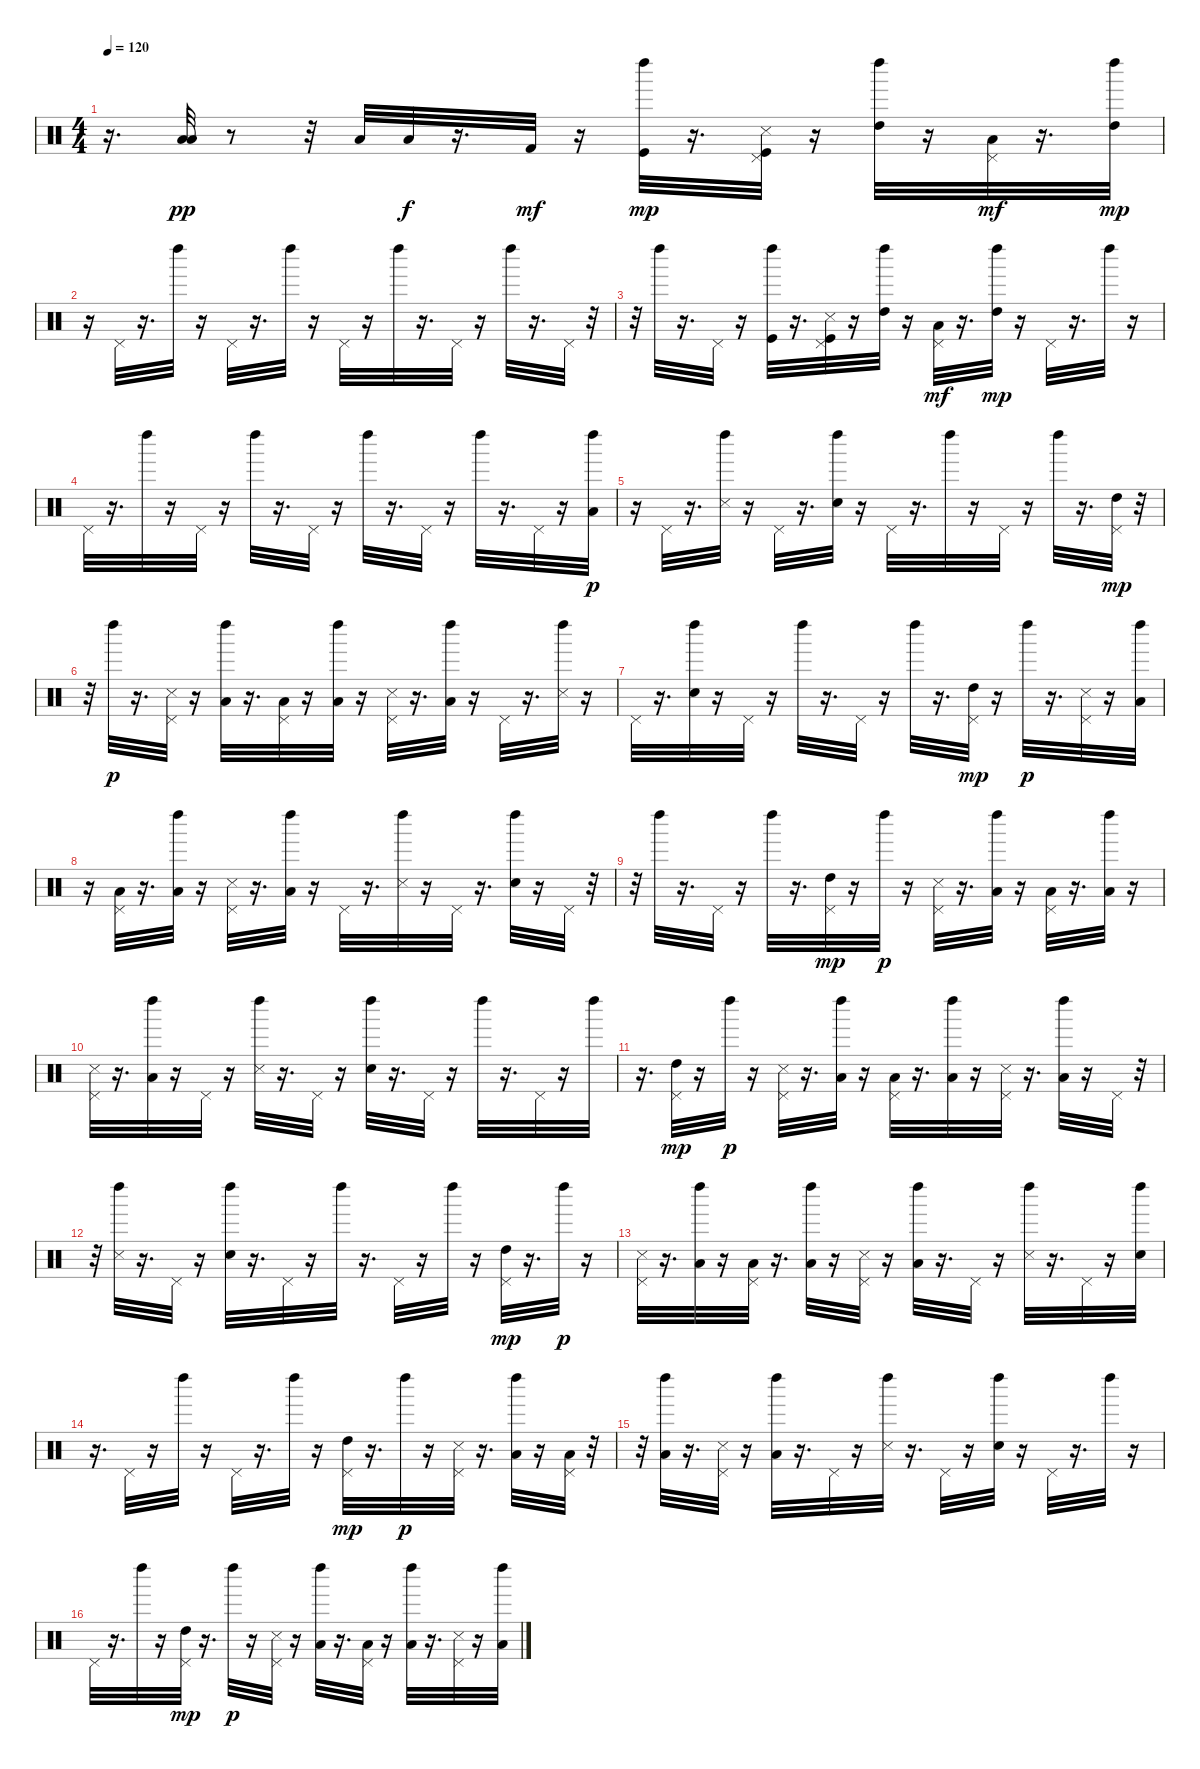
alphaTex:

\track "" {instrument percussion}
\staff {score}
\articulation defaults
\ts (4 4)
\tempo 120
\clef neutral
\ks c
r.16{d dy f} ("Low Tom (hit)" "Low Tom (hit)").32{dy pp} r.8 r.32 "Low Floor Tom (hit)".32 "Low Floor Tom (hit)".32{dy f} r.16{d} "Kick (hit) 2".32{dy mf} r.16 ("Kick (hit)" "Left Maraca (hit)").32{dy mp} r.16{d} ("Kick (hit)" "Pedal Hi-Hat (hit)" "Snare (side stick) 3").32 r.16 ("High Tom (hit)" "Left Maraca (hit)").32 r.16 ("Pedal Hi-Hat (hit)" "Low Floor Tom (hit)").32{dy mf} r.16{d} ("High Tom (hit)" "Left Maraca (hit)").32{dy mp} |
r.16 "Pedal Hi-Hat (hit)".32 r.16{d} "Left Maraca (hit)".32 r.16 "Pedal Hi-Hat (hit)".32 r.16{d} "Left Maraca (hit)".32 r.16 "Pedal Hi-Hat (hit)".32 r.16 "Left Maraca (hit)".32 r.16{d} "Pedal Hi-Hat (hit)".32 r.16 "Left Maraca (hit)".32 r.16{d} "Pedal Hi-Hat (hit)".32 r.32 |
r.32 "Left Maraca (hit)".32 r.16{d} "Pedal Hi-Hat (hit)".32 r.16 ("Kick (hit)" "Left Maraca (hit)").32 r.16{d} ("Kick (hit)" "Pedal Hi-Hat (hit)" "Snare (side stick) 3").32 r.16 ("High Tom (hit)" "Left Maraca (hit)").32 r.16 ("Pedal Hi-Hat (hit)" "Low Floor Tom (hit)").32{dy mf} r.16{d} ("High Tom (hit)" "Left Maraca (hit)").32{dy mp} r.16 "Pedal Hi-Hat (hit)".32 r.16{d} "Left Maraca (hit)".32 r.16 |
"Pedal Hi-Hat (hit)".32 r.16{d} "Left Maraca (hit)".32 r.16 "Pedal Hi-Hat (hit)".32 r.16 "Left Maraca (hit)".32 r.16{d} "Pedal Hi-Hat (hit)".32 r.16 "Left Maraca (hit)".32 r.16{d} "Pedal Hi-Hat (hit)".32 r.16 "Left Maraca (hit)".32 r.16{d} "Pedal Hi-Hat (hit)".32 r.16 ("Low Floor Tom (hit)" "Left Maraca (hit)").32{dy p} |
r.16 "Pedal Hi-Hat (hit)".32 r.16{d} ("Snare (side stick) 3" "Left Maraca (hit)").32 r.16 "Pedal Hi-Hat (hit)".32 r.16{d} ("Snare (hit) 2" "Left Maraca (hit)").32 r.16 "Pedal Hi-Hat (hit)".32 r.16{d} "Left Maraca (hit)".32 r.16 "Pedal Hi-Hat (hit)".32 r.16 "Left Maraca (hit)".32 r.16{d} ("Pedal Hi-Hat (hit)" "High Tom (hit)").32{dy mp} r.32 |
r.32 "Left Maraca (hit)".32{dy p} r.16{d} ("Pedal Hi-Hat (hit)" "Snare (side stick) 3").32 r.16 ("Low Tom (hit)" "Left Maraca (hit)").32 r.16{d} ("Pedal Hi-Hat (hit)" "Low Tom (hit)").32 r.16 ("Low Floor Tom (hit)" "Left Maraca (hit)").32 r.16 ("Pedal Hi-Hat (hit)" "Snare (side stick) 3").32 r.16{d} ("Low Floor Tom (hit)" "Left Maraca (hit)").32 r.16 "Pedal Hi-Hat (hit)".32 r.16{d} ("Snare (side stick) 3" "Left Maraca (hit)").32 r.16 |
"Pedal Hi-Hat (hit)".32 r.16{d} ("Snare (hit) 2" "Left Maraca (hit)").32 r.16 "Pedal Hi-Hat (hit)".32 r.16 "Left Maraca (hit)".32 r.16{d} "Pedal Hi-Hat (hit)".32 r.16 "Left Maraca (hit)".32 r.16{d} ("Pedal Hi-Hat (hit)" "High Tom (hit)").32{dy mp} r.16 "Left Maraca (hit)".32{dy p} r.16{d} ("Pedal Hi-Hat (hit)" "Snare (side stick) 3").32 r.16 ("Low Tom (hit)" "Left Maraca (hit)").32 |
r.16 ("Pedal Hi-Hat (hit)" "Low Tom (hit)").32 r.16{d} ("Low Floor Tom (hit)" "Left Maraca (hit)").32 r.16 ("Pedal Hi-Hat (hit)" "Snare (side stick) 3").32 r.16{d} ("Low Floor Tom (hit)" "Left Maraca (hit)").32 r.16 "Pedal Hi-Hat (hit)".32 r.16{d} ("Snare (side stick) 3" "Left Maraca (hit)").32 r.16 "Pedal Hi-Hat (hit)".32 r.16{d} ("Snare (hit) 2" "Left Maraca (hit)").32 r.16 "Pedal Hi-Hat (hit)".32 r.32 |
r.32 "Left Maraca (hit)".32 r.16{d} "Pedal Hi-Hat (hit)".32 r.16 "Left Maraca (hit)".32 r.16{d} ("Pedal Hi-Hat (hit)" "High Tom (hit)").32{dy mp} r.16 "Left Maraca (hit)".32{dy p} r.16 ("Pedal Hi-Hat (hit)" "Snare (side stick) 3").32 r.16{d} ("Low Tom (hit)" "Left Maraca (hit)").32 r.16 ("Pedal Hi-Hat (hit)" "Low Tom (hit)").32 r.16{d} ("Low Floor Tom (hit)" "Left Maraca (hit)").32 r.16 |
("Pedal Hi-Hat (hit)" "Snare (side stick) 3").32 r.16{d} ("Low Floor Tom (hit)" "Left Maraca (hit)").32 r.16 "Pedal Hi-Hat (hit)".32 r.16 ("Snare (side stick) 3" "Left Maraca (hit)").32 r.16{d} "Pedal Hi-Hat (hit)".32 r.16 ("Snare (hit) 2" "Left Maraca (hit)").32 r.16{d} "Pedal Hi-Hat (hit)".32 r.16 "Left Maraca (hit)".32 r.16{d} "Pedal Hi-Hat (hit)".32 r.16 "Left Maraca (hit)".32 |
r.16{d} ("Pedal Hi-Hat (hit)" "High Tom (hit)").32{dy mp} r.16 "Left Maraca (hit)".32{dy p} r.16 ("Pedal Hi-Hat (hit)" "Snare (side stick) 3").32 r.16{d} ("Low Tom (hit)" "Left Maraca (hit)").32 r.16 ("Pedal Hi-Hat (hit)" "Low Tom (hit)").32 r.16{d} ("Low Floor Tom (hit)" "Left Maraca (hit)").32 r.16 ("Pedal Hi-Hat (hit)" "Snare (side stick) 3").32 r.16{d} ("Low Floor Tom (hit)" "Left Maraca (hit)").32 r.16 "Pedal Hi-Hat (hit)".32 r.32 |
r.32 ("Snare (side stick) 3" "Left Maraca (hit)").32 r.16{d} "Pedal Hi-Hat (hit)".32 r.16 ("Snare (hit) 2" "Left Maraca (hit)").32 r.16{d} "Pedal Hi-Hat (hit)".32 r.16 "Left Maraca (hit)".32 r.16{d} "Pedal Hi-Hat (hit)".32 r.16 "Left Maraca (hit)".32 r.16 ("Pedal Hi-Hat (hit)" "High Tom (hit)").32{dy mp} r.16{d} "Left Maraca (hit)".32{dy p} r.16 |
("Pedal Hi-Hat (hit)" "Snare (side stick) 3").32 r.16{d} ("Low Tom (hit)" "Left Maraca (hit)").32 r.16 ("Pedal Hi-Hat (hit)" "Low Tom (hit)").32 r.16{d} ("Low Floor Tom (hit)" "Left Maraca (hit)").32 r.16 ("Pedal Hi-Hat (hit)" "Snare (side stick) 3").32 r.16 ("Low Floor Tom (hit)" "Left Maraca (hit)").32 r.16{d} "Pedal Hi-Hat (hit)".32 r.16 ("Snare (side stick) 3" "Left Maraca (hit)").32 r.16{d} "Pedal Hi-Hat (hit)".32 r.16 ("Snare (hit) 2" "Left Maraca (hit)").32 |
r.16{d} "Pedal Hi-Hat (hit)".32 r.16 "Left Maraca (hit)".32 r.16 "Pedal Hi-Hat (hit)".32 r.16{d} "Left Maraca (hit)".32 r.16 ("Pedal Hi-Hat (hit)" "High Tom (hit)").32{dy mp} r.16{d} "Left Maraca (hit)".32{dy p} r.16 ("Pedal Hi-Hat (hit)" "Snare (side stick) 3").32 r.16{d} ("Low Tom (hit)" "Left Maraca (hit)").32 r.16 ("Pedal Hi-Hat (hit)" "Low Tom (hit)").32 r.32 |
r.32 ("Low Floor Tom (hit)" "Left Maraca (hit)").32 r.16{d} ("Pedal Hi-Hat (hit)" "Snare (side stick) 3").32 r.16 ("Low Floor Tom (hit)" "Left Maraca (hit)").32 r.16{d} "Pedal Hi-Hat (hit)".32 r.16 ("Snare (side stick) 3" "Left Maraca (hit)").32 r.16{d} "Pedal Hi-Hat (hit)".32 r.16 ("Snare (hit) 2" "Left Maraca (hit)").32 r.16 "Pedal Hi-Hat (hit)".32 r.16{d} "Left Maraca (hit)".32 r.16 |
"Pedal Hi-Hat (hit)".32 r.16{d} "Left Maraca (hit)".32 r.16 ("Pedal Hi-Hat (hit)" "High Tom (hit)").32{dy mp} r.16{d} "Left Maraca (hit)".32{dy p} r.16 ("Pedal Hi-Hat (hit)" "Snare (side stick) 3").32 r.16 ("Low Tom (hit)" "Left Maraca (hit)").32 r.16{d} ("Pedal Hi-Hat (hit)" "Low Tom (hit)").32 r.16 ("Low Floor Tom (hit)" "Left Maraca (hit)").32 r.16{d} ("Pedal Hi-Hat (hit)" "Snare (side stick) 3").32 r.16 ("Low Floor Tom (hit)" "Left Maraca (hit)").32
